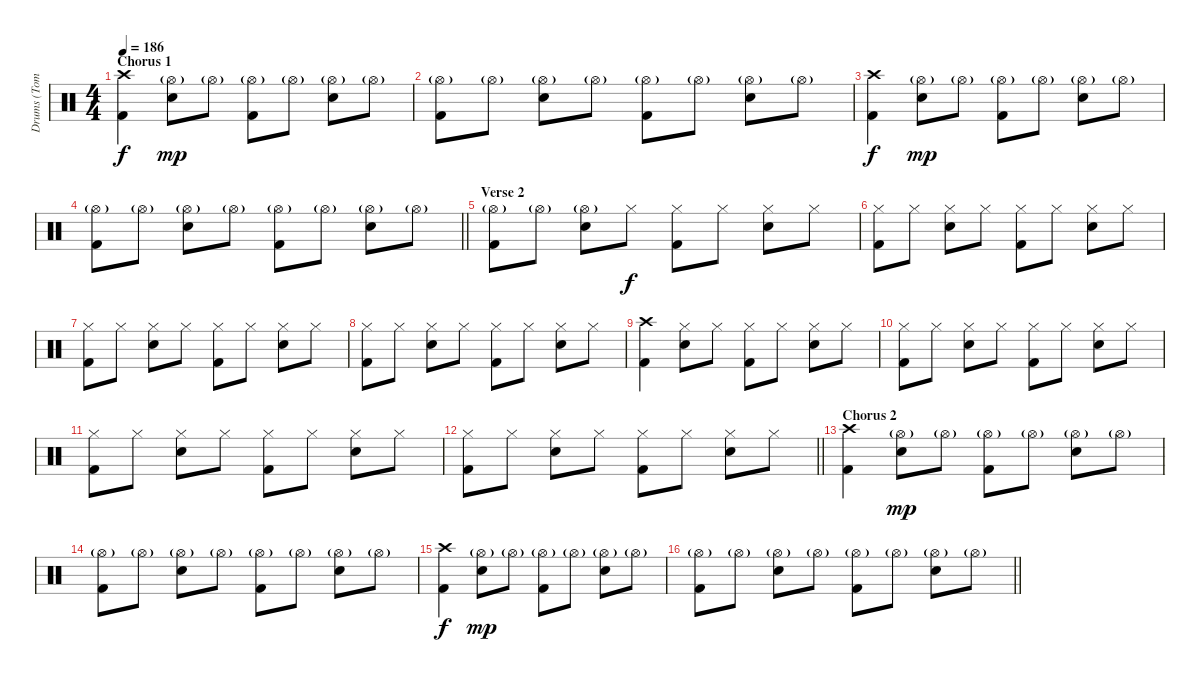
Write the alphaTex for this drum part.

\track ("Drums (Tommy)" "Drums (Tom") {instrument percussion}
\staff {score}
\articulation defaults
\ts (4 4)
\section ("" "Chorus 1")
\tempo 186
\clef neutral
\ks c
("Crash high (hit)" "Kick (hit) 2").4{dy f} ("Hi-Hat (open)"{g} "Electric Snare (hit)").8{dy mp} "Hi-Hat (open)"{g}.8 ("Hi-Hat (open)"{g} "Kick (hit) 2").8 "Hi-Hat (open)"{g}.8 ("Hi-Hat (open)"{g} "Electric Snare (hit)").8 "Hi-Hat (open)"{g}.8 |
("Hi-Hat (open)"{g} "Kick (hit) 2").8 "Hi-Hat (open)"{g}.8 ("Hi-Hat (open)"{g} "Electric Snare (hit)").8 "Hi-Hat (open)"{g}.8 ("Hi-Hat (open)"{g} "Kick (hit) 2").8 "Hi-Hat (open)"{g}.8 ("Hi-Hat (open)"{g} "Electric Snare (hit)").8 "Hi-Hat (open)"{g}.8 |
("Crash high (hit)" "Kick (hit) 2").4{dy f} ("Hi-Hat (open)"{g} "Electric Snare (hit)").8{dy mp} "Hi-Hat (open)"{g}.8 ("Hi-Hat (open)"{g} "Kick (hit) 2").8 "Hi-Hat (open)"{g}.8 ("Hi-Hat (open)"{g} "Electric Snare (hit)").8 "Hi-Hat (open)"{g}.8 |
\barLineRight lightlight
("Hi-Hat (open)"{g} "Kick (hit) 2").8 "Hi-Hat (open)"{g}.8 ("Hi-Hat (open)"{g} "Electric Snare (hit)").8 "Hi-Hat (open)"{g}.8 ("Hi-Hat (open)"{g} "Kick (hit) 2").8 "Hi-Hat (open)"{g}.8 ("Hi-Hat (open)"{g} "Electric Snare (hit)").8 "Hi-Hat (open)"{g}.8 |
\section ("" "Verse 2")
("Hi-Hat (open)"{g} "Kick (hit) 2").8 "Hi-Hat (open)"{g}.8 ("Hi-Hat (open)"{g} "Electric Snare (hit)").8 "Hi-Hat (closed)".8{dy f} ("Hi-Hat (closed)" "Kick (hit) 2").8 "Hi-Hat (closed)".8 ("Hi-Hat (closed)" "Electric Snare (hit)").8 "Hi-Hat (closed)".8 |
("Hi-Hat (closed)" "Kick (hit) 2").8 "Hi-Hat (closed)".8 ("Hi-Hat (closed)" "Electric Snare (hit)").8 "Hi-Hat (closed)".8 ("Hi-Hat (closed)" "Kick (hit) 2").8 "Hi-Hat (closed)".8 ("Hi-Hat (closed)" "Electric Snare (hit)").8 "Hi-Hat (closed)".8 |
("Hi-Hat (closed)" "Kick (hit) 2").8 "Hi-Hat (closed)".8 ("Hi-Hat (closed)" "Electric Snare (hit)").8 "Hi-Hat (closed)".8 ("Hi-Hat (closed)" "Kick (hit) 2").8 "Hi-Hat (closed)".8 ("Hi-Hat (closed)" "Electric Snare (hit)").8 "Hi-Hat (closed)".8 |
("Hi-Hat (closed)" "Kick (hit) 2").8 "Hi-Hat (closed)".8 ("Hi-Hat (closed)" "Electric Snare (hit)").8 "Hi-Hat (closed)".8 ("Hi-Hat (closed)" "Kick (hit) 2").8 "Hi-Hat (closed)".8 ("Hi-Hat (closed)" "Electric Snare (hit)").8 "Hi-Hat (closed)".8 |
("Crash high (hit)" "Kick (hit) 2").4 ("Hi-Hat (closed)" "Electric Snare (hit)").8 "Hi-Hat (closed)".8 ("Hi-Hat (closed)" "Kick (hit) 2").8 "Hi-Hat (closed)".8 ("Hi-Hat (closed)" "Electric Snare (hit)").8 "Hi-Hat (closed)".8 |
("Hi-Hat (closed)" "Kick (hit) 2").8 "Hi-Hat (closed)".8 ("Hi-Hat (closed)" "Electric Snare (hit)").8 "Hi-Hat (closed)".8 ("Hi-Hat (closed)" "Kick (hit) 2").8 "Hi-Hat (closed)".8 ("Hi-Hat (closed)" "Electric Snare (hit)").8 "Hi-Hat (closed)".8 |
("Hi-Hat (closed)" "Kick (hit) 2").8 "Hi-Hat (closed)".8 ("Hi-Hat (closed)" "Electric Snare (hit)").8 "Hi-Hat (closed)".8 ("Hi-Hat (closed)" "Kick (hit) 2").8 "Hi-Hat (closed)".8 ("Hi-Hat (closed)" "Electric Snare (hit)").8 "Hi-Hat (closed)".8 |
\barLineRight lightlight
("Hi-Hat (closed)" "Kick (hit) 2").8 "Hi-Hat (closed)".8 ("Hi-Hat (closed)" "Electric Snare (hit)").8 "Hi-Hat (closed)".8 ("Hi-Hat (closed)" "Kick (hit) 2").8 "Hi-Hat (closed)".8 ("Hi-Hat (closed)" "Electric Snare (hit)").8 "Hi-Hat (closed)".8 |
\section ("" "Chorus 2")
("Crash high (hit)" "Kick (hit) 2").4 ("Hi-Hat (open)"{g} "Electric Snare (hit)").8{dy mp} "Hi-Hat (open)"{g}.8 ("Hi-Hat (open)"{g} "Kick (hit) 2").8 "Hi-Hat (open)"{g}.8 ("Hi-Hat (open)"{g} "Electric Snare (hit)").8 "Hi-Hat (open)"{g}.8 |
("Hi-Hat (open)"{g} "Kick (hit) 2").8 "Hi-Hat (open)"{g}.8 ("Hi-Hat (open)"{g} "Electric Snare (hit)").8 "Hi-Hat (open)"{g}.8 ("Hi-Hat (open)"{g} "Kick (hit) 2").8 "Hi-Hat (open)"{g}.8 ("Hi-Hat (open)"{g} "Electric Snare (hit)").8 "Hi-Hat (open)"{g}.8 |
("Crash high (hit)" "Kick (hit) 2").4{dy f} ("Hi-Hat (open)"{g} "Electric Snare (hit)").8{dy mp} "Hi-Hat (open)"{g}.8 ("Hi-Hat (open)"{g} "Kick (hit) 2").8 "Hi-Hat (open)"{g}.8 ("Hi-Hat (open)"{g} "Electric Snare (hit)").8 "Hi-Hat (open)"{g}.8 |
\barLineRight lightlight
("Hi-Hat (open)"{g} "Kick (hit) 2").8 "Hi-Hat (open)"{g}.8 ("Hi-Hat (open)"{g} "Electric Snare (hit)").8 "Hi-Hat (open)"{g}.8 ("Hi-Hat (open)"{g} "Kick (hit) 2").8 "Hi-Hat (open)"{g}.8 ("Hi-Hat (open)"{g} "Electric Snare (hit)").8 "Hi-Hat (open)"{g}.8
